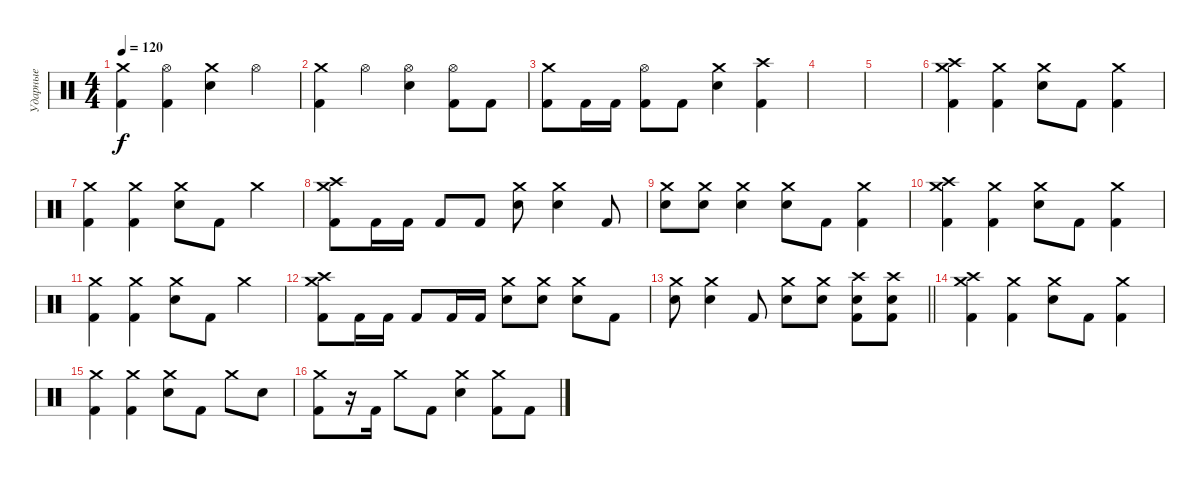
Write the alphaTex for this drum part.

\track ("Ударные" "Ударные") {instrument percussion}
\staff {score}
\articulation defaults
\ts (4 4)
\tempo 120
\clef neutral
\ks c
("Crash medium (hit)" "Kick (hit) 2").4{dy f} ("Hi-Hat (open)" "Kick (hit) 2").4 ("Crash medium (hit)" "Snare (hit) 2").4 "Hi-Hat (open)".4 |
("Crash medium (hit)" "Kick (hit) 2").4 "Hi-Hat (open)".4 ("Hi-Hat (open)" "Snare (hit) 2").4 ("Hi-Hat (open)" "Kick (hit) 2").8 "Kick (hit) 2".8 |
("Crash medium (hit)" "Kick (hit) 2").8 "Kick (hit) 2".16 "Kick (hit) 2".16 ("Hi-Hat (open)" "Kick (hit) 2").8 "Kick (hit) 2".8 ("Crash medium (hit)" "Snare (hit) 2").4 ("Crash high (hit)" "Kick (hit) 2").4 |
|
|
("Crash medium (hit)" "Crash high (hit)" "Kick (hit) 2").4 ("Crash medium (hit)" "Kick (hit) 2").4 ("Crash medium (hit)" "Snare (hit) 2").8 "Kick (hit) 2".8 ("Crash medium (hit)" "Kick (hit) 2").4 |
("Crash medium (hit)" "Kick (hit) 2").4 ("Crash medium (hit)" "Kick (hit) 2").4 ("Crash medium (hit)" "Snare (hit) 2").8 "Kick (hit) 2".8 "Crash medium (hit)".4 |
("Crash medium (hit)" "Crash high (hit)" "Kick (hit) 2").8 "Kick (hit) 2".16 "Kick (hit) 2".16 "Kick (hit) 2".8 "Kick (hit) 2".8 ("Crash medium (hit)" "Snare (hit) 2").8 ("Crash medium (hit)" "Snare (hit) 2").4 "Kick (hit) 2".8 |
("Crash medium (hit)" "Snare (hit) 2").8 ("Crash medium (hit)" "Snare (hit) 2").8 ("Crash medium (hit)" "Snare (hit) 2").4 ("Crash medium (hit)" "Snare (hit) 2").8 "Kick (hit) 2".8 ("Crash medium (hit)" "Kick (hit) 2").4 |
("Crash medium (hit)" "Crash high (hit)" "Kick (hit) 2").4 ("Crash medium (hit)" "Kick (hit) 2").4 ("Crash medium (hit)" "Snare (hit) 2").8 "Kick (hit) 2".8 ("Crash medium (hit)" "Kick (hit) 2").4 |
("Crash medium (hit)" "Kick (hit) 2").4 ("Crash medium (hit)" "Kick (hit) 2").4 ("Crash medium (hit)" "Snare (hit) 2").8 "Kick (hit) 2".8 "Crash medium (hit)".4 |
("Crash medium (hit)" "Crash high (hit)" "Kick (hit) 2").8 "Kick (hit) 2".16 "Kick (hit) 2".16 "Kick (hit) 2".8 "Kick (hit) 2".16 "Kick (hit) 2".16 ("Crash medium (hit)" "Snare (hit) 2").8 ("Crash medium (hit)" "Snare (hit) 2").8 ("Crash medium (hit)" "Snare (hit) 2").8 "Kick (hit) 2".8 |
\barLineRight lightlight
("Crash medium (hit)" "Snare (hit) 2").8 ("Crash medium (hit)" "Snare (hit) 2").4 "Kick (hit) 2".8 ("Crash medium (hit)" "Snare (hit) 2").8 ("Crash medium (hit)" "Snare (hit) 2").8 ("Crash high (hit)" "Snare (hit) 2" "Kick (hit) 2").8 ("Crash high (hit)" "Snare (hit) 2" "Kick (hit) 2").8 |
("Crash medium (hit)" "Crash high (hit)" "Kick (hit) 2").4 ("Crash medium (hit)" "Kick (hit) 2").4 ("Crash medium (hit)" "Snare (hit) 2").8 "Kick (hit) 2".8 ("Crash medium (hit)" "Kick (hit) 2").4 |
("Crash medium (hit)" "Kick (hit) 2").4 ("Crash medium (hit)" "Kick (hit) 2").4 ("Crash medium (hit)" "Snare (hit) 2").8 "Kick (hit) 2".8 "Crash medium (hit)".8 "Snare (hit) 2".8 |
("Crash medium (hit)" "Kick (hit) 2").8 r.16 "Kick (hit) 2".16 "Crash medium (hit)".8 "Kick (hit) 2".8 ("Crash medium (hit)" "Snare (hit) 2").4 ("Crash medium (hit)" "Kick (hit) 2").8 "Kick (hit) 2".8
